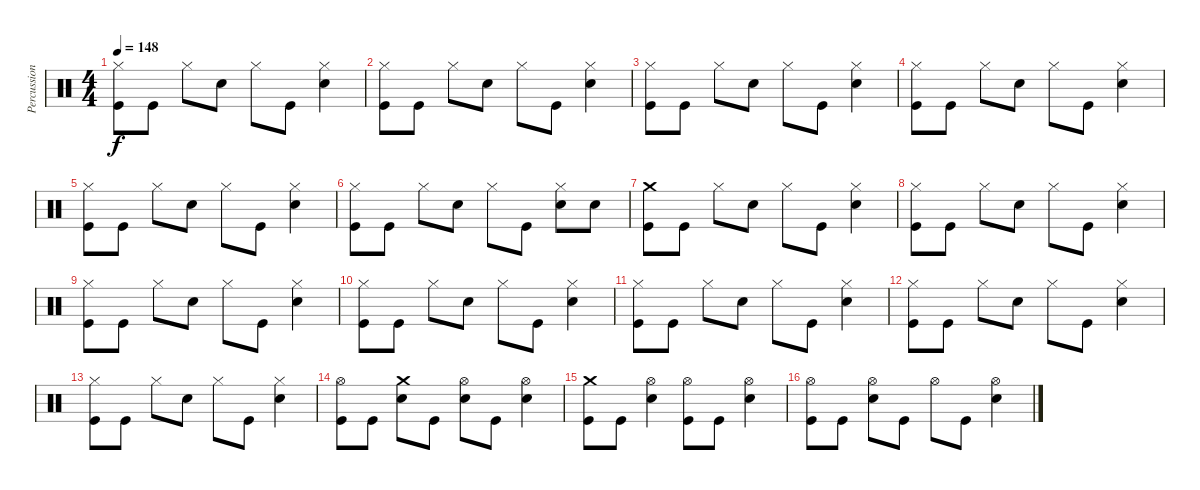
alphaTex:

\track ("Percussion" "Percussion") {instrument percussion}
\staff {score}
\articulation defaults
\ts (4 4)
\tempo 148
\clef neutral
\ks c
("Hi-Hat (closed)" "Kick (hit)").8{dy f} "Kick (hit)".8 "Hi-Hat (closed)".8 "Electric Snare (hit)".8 "Hi-Hat (closed)".8 "Kick (hit)".8 ("Hi-Hat (closed)" "Electric Snare (hit)").4 |
("Hi-Hat (closed)" "Kick (hit)").8 "Kick (hit)".8 "Hi-Hat (closed)".8 "Electric Snare (hit)".8 "Hi-Hat (closed)".8 "Kick (hit)".8 ("Hi-Hat (closed)" "Electric Snare (hit)").4 |
("Hi-Hat (closed)" "Kick (hit)").8 "Kick (hit)".8 "Hi-Hat (closed)".8 "Electric Snare (hit)".8 "Hi-Hat (closed)".8 "Kick (hit)".8 ("Hi-Hat (closed)" "Electric Snare (hit)").4 |
("Hi-Hat (closed)" "Kick (hit)").8 "Kick (hit)".8 "Hi-Hat (closed)".8 "Electric Snare (hit)".8 "Hi-Hat (closed)".8 "Kick (hit)".8 ("Hi-Hat (closed)" "Electric Snare (hit)").4 |
("Hi-Hat (closed)" "Kick (hit)").8 "Kick (hit)".8 "Hi-Hat (closed)".8 "Electric Snare (hit)".8 "Hi-Hat (closed)".8 "Kick (hit)".8 ("Hi-Hat (closed)" "Electric Snare (hit)").4 |
("Hi-Hat (closed)" "Kick (hit)").8 "Kick (hit)".8 "Hi-Hat (closed)".8 "Electric Snare (hit)".8 "Hi-Hat (closed)".8 "Kick (hit)".8 ("Hi-Hat (closed)" "Electric Snare (hit)").8 "Electric Snare (hit)".8 |
("Crash medium (hit)" "Kick (hit)").8 "Kick (hit)".8 "Hi-Hat (closed)".8 "Electric Snare (hit)".8 "Hi-Hat (closed)".8 "Kick (hit)".8 ("Hi-Hat (closed)" "Electric Snare (hit)").4 |
("Hi-Hat (closed)" "Kick (hit)").8 "Kick (hit)".8 "Hi-Hat (closed)".8 "Electric Snare (hit)".8 "Hi-Hat (closed)".8 "Kick (hit)".8 ("Hi-Hat (closed)" "Electric Snare (hit)").4 |
("Hi-Hat (closed)" "Kick (hit)").8 "Kick (hit)".8 "Hi-Hat (closed)".8 "Electric Snare (hit)".8 "Hi-Hat (closed)".8 "Kick (hit)".8 ("Hi-Hat (closed)" "Electric Snare (hit)").4 |
("Hi-Hat (closed)" "Kick (hit)").8 "Kick (hit)".8 "Hi-Hat (closed)".8 "Electric Snare (hit)".8 "Hi-Hat (closed)".8 "Kick (hit)".8 ("Hi-Hat (closed)" "Electric Snare (hit)").4 |
("Hi-Hat (closed)" "Kick (hit)").8 "Kick (hit)".8 "Hi-Hat (closed)".8 "Electric Snare (hit)".8 "Hi-Hat (closed)".8 "Kick (hit)".8 ("Hi-Hat (closed)" "Electric Snare (hit)").4 |
("Hi-Hat (closed)" "Kick (hit)").8 "Kick (hit)".8 "Hi-Hat (closed)".8 "Electric Snare (hit)".8 "Hi-Hat (closed)".8 "Kick (hit)".8 ("Hi-Hat (closed)" "Electric Snare (hit)").4 |
("Hi-Hat (closed)" "Kick (hit)").8 "Kick (hit)".8 "Hi-Hat (closed)".8 "Electric Snare (hit)".8 "Hi-Hat (closed)".8 "Kick (hit)".8 ("Hi-Hat (closed)" "Electric Snare (hit)").4 |
("Hi-Hat (open)" "Kick (hit)").8 "Kick (hit)".8 ("Crash medium (hit)" "Electric Snare (hit)").8 "Kick (hit)".8 ("Hi-Hat (open)" "Electric Snare (hit)").8 "Kick (hit)".8 ("Hi-Hat (open)" "Electric Snare (hit)").4 |
("Crash medium (hit)" "Kick (hit)").8 "Kick (hit)".8 ("Hi-Hat (open)" "Electric Snare (hit)").4 ("Hi-Hat (open)" "Kick (hit)").8 "Kick (hit)".8 ("Hi-Hat (open)" "Electric Snare (hit)").4 |
("Hi-Hat (open)" "Kick (hit)").8 "Kick (hit)".8 ("Hi-Hat (open)" "Electric Snare (hit)").8 "Kick (hit)".8 "Hi-Hat (open)".8 "Kick (hit)".8 ("Hi-Hat (open)" "Electric Snare (hit)").4
